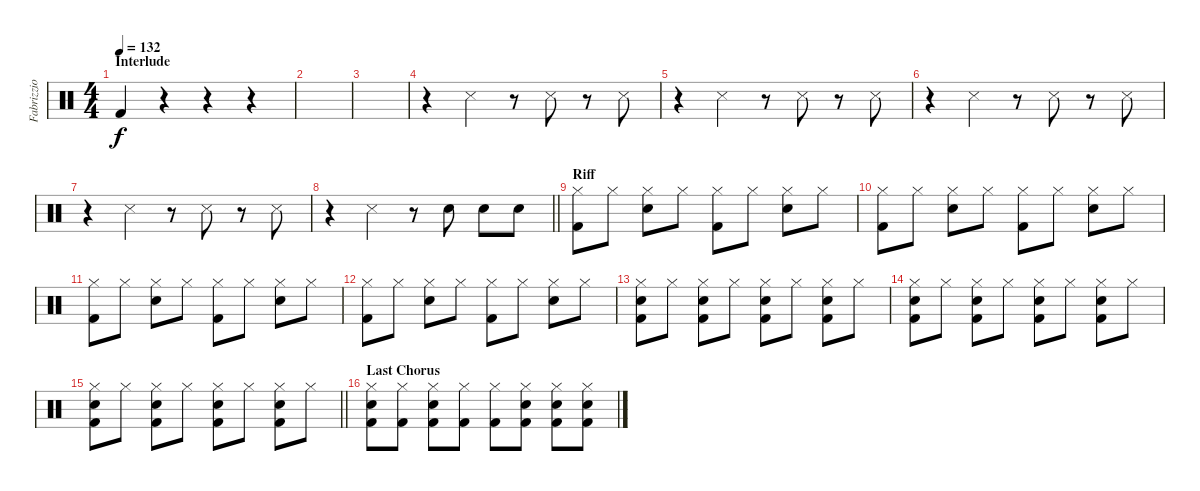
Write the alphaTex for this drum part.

\track ("Fabrizzio" "Fabrizzio") {instrument percussion}
\staff {score}
\articulation defaults
\ts (4 4)
\section ("" "Interlude")
\tempo 132
\clef neutral
\ks c "Kick (hit) 2".4{dy f}
r.4 r.4 r.4 |
|
|
r.4 "Snare (side stick) 3".4 r.8 "Snare (side stick) 3".8 r.8 "Snare (side stick) 3".8 |
r.4 "Snare (side stick) 3".4 r.8 "Snare (side stick) 3".8 r.8 "Snare (side stick) 3".8 |
r.4 "Snare (side stick) 3".4 r.8 "Snare (side stick) 3".8 r.8 "Snare (side stick) 3".8 |
r.4 "Snare (side stick) 3".4 r.8 "Snare (side stick) 3".8 r.8 "Snare (side stick) 3".8 |
\barLineRight lightlight
r.4 "Snare (side stick) 3".4 r.8 "Snare (hit) 2".8 "Snare (hit) 2".8 "Snare (hit) 2".8 |
\section ("" "Riff")
("Hi-Hat (closed)" "Kick (hit) 2").8 "Hi-Hat (closed)".8 ("Hi-Hat (closed)" "Snare (hit) 2").8 "Hi-Hat (closed)".8 ("Hi-Hat (closed)" "Kick (hit) 2").8 "Hi-Hat (closed)".8 ("Hi-Hat (closed)" "Snare (hit) 2").8 "Hi-Hat (closed)".8 |
("Hi-Hat (closed)" "Kick (hit) 2").8 "Hi-Hat (closed)".8 ("Hi-Hat (closed)" "Snare (hit) 2").8 "Hi-Hat (closed)".8 ("Hi-Hat (closed)" "Kick (hit) 2").8 "Hi-Hat (closed)".8 ("Hi-Hat (closed)" "Snare (hit) 2").8 "Hi-Hat (closed)".8 |
("Hi-Hat (closed)" "Kick (hit) 2").8 "Hi-Hat (closed)".8 ("Hi-Hat (closed)" "Snare (hit) 2").8 "Hi-Hat (closed)".8 ("Hi-Hat (closed)" "Kick (hit) 2").8 "Hi-Hat (closed)".8 ("Hi-Hat (closed)" "Snare (hit) 2").8 "Hi-Hat (closed)".8 |
("Hi-Hat (closed)" "Kick (hit) 2").8 "Hi-Hat (closed)".8 ("Hi-Hat (closed)" "Snare (hit) 2").8 "Hi-Hat (closed)".8 ("Hi-Hat (closed)" "Kick (hit) 2").8 "Hi-Hat (closed)".8 ("Hi-Hat (closed)" "Snare (hit) 2").8 "Hi-Hat (closed)".8 |
("Hi-Hat (closed)" "Snare (hit) 2" "Kick (hit) 2").8 "Hi-Hat (closed)".8 ("Hi-Hat (closed)" "Snare (hit) 2" "Kick (hit) 2").8 "Hi-Hat (closed)".8 ("Hi-Hat (closed)" "Snare (hit) 2" "Kick (hit) 2").8 "Hi-Hat (closed)".8 ("Hi-Hat (closed)" "Snare (hit) 2" "Kick (hit) 2").8 "Hi-Hat (closed)".8 |
("Hi-Hat (closed)" "Snare (hit) 2" "Kick (hit) 2").8 "Hi-Hat (closed)".8 ("Hi-Hat (closed)" "Snare (hit) 2" "Kick (hit) 2").8 "Hi-Hat (closed)".8 ("Hi-Hat (closed)" "Snare (hit) 2" "Kick (hit) 2").8 "Hi-Hat (closed)".8 ("Hi-Hat (closed)" "Snare (hit) 2" "Kick (hit) 2").8 "Hi-Hat (closed)".8 |
\barLineRight lightlight
("Hi-Hat (closed)" "Snare (hit) 2" "Kick (hit) 2").8 "Hi-Hat (closed)".8 ("Hi-Hat (closed)" "Snare (hit) 2" "Kick (hit) 2").8 "Hi-Hat (closed)".8 ("Hi-Hat (closed)" "Snare (hit) 2" "Kick (hit) 2").8 "Hi-Hat (closed)".8 ("Hi-Hat (closed)" "Snare (hit) 2" "Kick (hit) 2").8 "Hi-Hat (closed)".8 |
\section ("" "Last Chorus")
("Hi-Hat (closed)" "Snare (hit) 2" "Kick (hit) 2").8 ("Hi-Hat (closed)" "Kick (hit) 2").8 ("Hi-Hat (closed)" "Snare (hit) 2" "Kick (hit) 2").8 ("Hi-Hat (closed)" "Kick (hit) 2").8 ("Hi-Hat (closed)" "Kick (hit) 2").8 ("Hi-Hat (closed)" "Snare (hit) 2" "Kick (hit) 2").8 ("Hi-Hat (closed)" "Snare (hit) 2" "Kick (hit) 2").8 ("Hi-Hat (closed)" "Snare (hit) 2" "Kick (hit) 2").8
